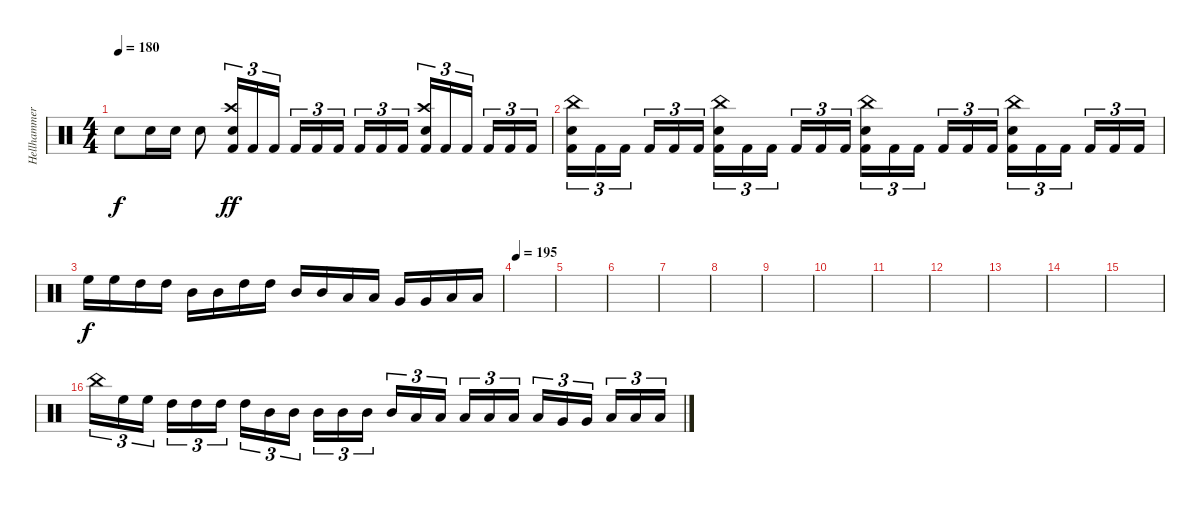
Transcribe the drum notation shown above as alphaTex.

\track ("Hellhammer" "Hellhammer") {instrument percussion}
\staff {score}
\articulation defaults
\ts (4 4)
\tempo 180
\clef neutral
\ks c "Electric Snare (hit)".8{dy f} "Electric Snare (hit)".16 "Electric Snare (hit)".16 "Electric Snare (hit)".8
("Crash high (hit)" "Electric Snare (hit)" "Kick (hit) 2").16{tu (3 2) dy ff} "Kick (hit) 2".16{tu (3 2)} "Kick (hit) 2".16{tu (3 2)} "Kick (hit) 2".16{tu (3 2)} "Kick (hit) 2".16{tu (3 2)} "Kick (hit) 2".16{tu (3 2) beam splitsecondary} "Kick (hit) 2".16{tu (3 2)} "Kick (hit) 2".16{tu (3 2)} "Kick (hit) 2".16{tu (3 2)} ("Crash high (hit)" "Electric Snare (hit)" "Kick (hit) 2").16{tu (3 2)} "Kick (hit) 2".16{tu (3 2)} "Kick (hit) 2".16{tu (3 2) beam splitsecondary} "Kick (hit) 2".16{tu (3 2)} "Kick (hit) 2".16{tu (3 2)} "Kick (hit) 2".16{tu (3 2)} |
("China (hit)" "Electric Snare (hit)" "Kick (hit) 2").16{tu (3 2)} "Kick (hit) 2".16{tu (3 2)} "Kick (hit) 2".16{tu (3 2) beam splitsecondary} "Kick (hit) 2".16{tu (3 2)} "Kick (hit) 2".16{tu (3 2)} "Kick (hit) 2".16{tu (3 2)} ("China (hit)" "Electric Snare (hit)" "Kick (hit) 2").16{tu (3 2)} "Kick (hit) 2".16{tu (3 2)} "Kick (hit) 2".16{tu (3 2) beam splitsecondary} "Kick (hit) 2".16{tu (3 2)} "Kick (hit) 2".16{tu (3 2)} "Kick (hit) 2".16{tu (3 2)} ("China (hit)" "Electric Snare (hit)" "Kick (hit) 2").16{tu (3 2)} "Kick (hit) 2".16{tu (3 2)} "Kick (hit) 2".16{tu (3 2) beam splitsecondary} "Kick (hit) 2".16{tu (3 2)} "Kick (hit) 2".16{tu (3 2)} "Kick (hit) 2".16{tu (3 2)} ("China (hit)" "Electric Snare (hit)" "Kick (hit) 2").16{tu (3 2)} "Kick (hit) 2".16{tu (3 2)} "Kick (hit) 2".16{tu (3 2) beam splitsecondary} "Kick (hit) 2".16{tu (3 2)} "Kick (hit) 2".16{tu (3 2)} "Kick (hit) 2".16{tu (3 2)} |
"High Floor Tom (hit)".16{dy f} "High Floor Tom (hit)".16 "High Tom (hit)".16 "High Tom (hit)".16 "Mid Tom (hit)".16 "Mid Tom (hit)".16 "High Tom (hit)".16 "High Tom (hit)".16 "Mid Tom (hit)".16 "Mid Tom (hit)".16 "Low Tom (hit)".16 "Low Tom (hit)".16 "Very Low Tom (hit)".16 "Very Low Tom (hit)".16 "Low Floor Tom (hit)".16 "Low Floor Tom (hit)".16 |
\tempo 195
|
|
|
|
|
|
|
|
|
|
|
|
"China (hit)".16{tu (3 2)} "High Floor Tom (hit)".16{tu (3 2)} "High Floor Tom (hit)".16{tu (3 2) beam splitsecondary} "High Tom (hit)".16{tu (3 2)} "High Tom (hit)".16{tu (3 2)} "High Tom (hit)".16{tu (3 2)} "High Tom (hit)".16{tu (3 2)} "Mid Tom (hit)".16{tu (3 2)} "Mid Tom (hit)".16{tu (3 2) beam splitsecondary} "Mid Tom (hit)".16{tu (3 2)} "Mid Tom (hit)".16{tu (3 2)} "Mid Tom (hit)".16{tu (3 2)} "Mid Tom (hit)".16{tu (3 2)} "Low Tom (hit)".16{tu (3 2)} "Low Tom (hit)".16{tu (3 2) beam splitsecondary} "Low Tom (hit)".16{tu (3 2)} "Low Tom (hit)".16{tu (3 2)} "Low Tom (hit)".16{tu (3 2)} "Low Tom (hit)".16{tu (3 2)} "Very Low Tom (hit)".16{tu (3 2)} "Very Low Tom (hit)".16{tu (3 2) beam splitsecondary} "Low Tom (hit)".16{tu (3 2)} "Low Tom (hit)".16{tu (3 2)} "Low Tom (hit)".16{tu (3 2)}
